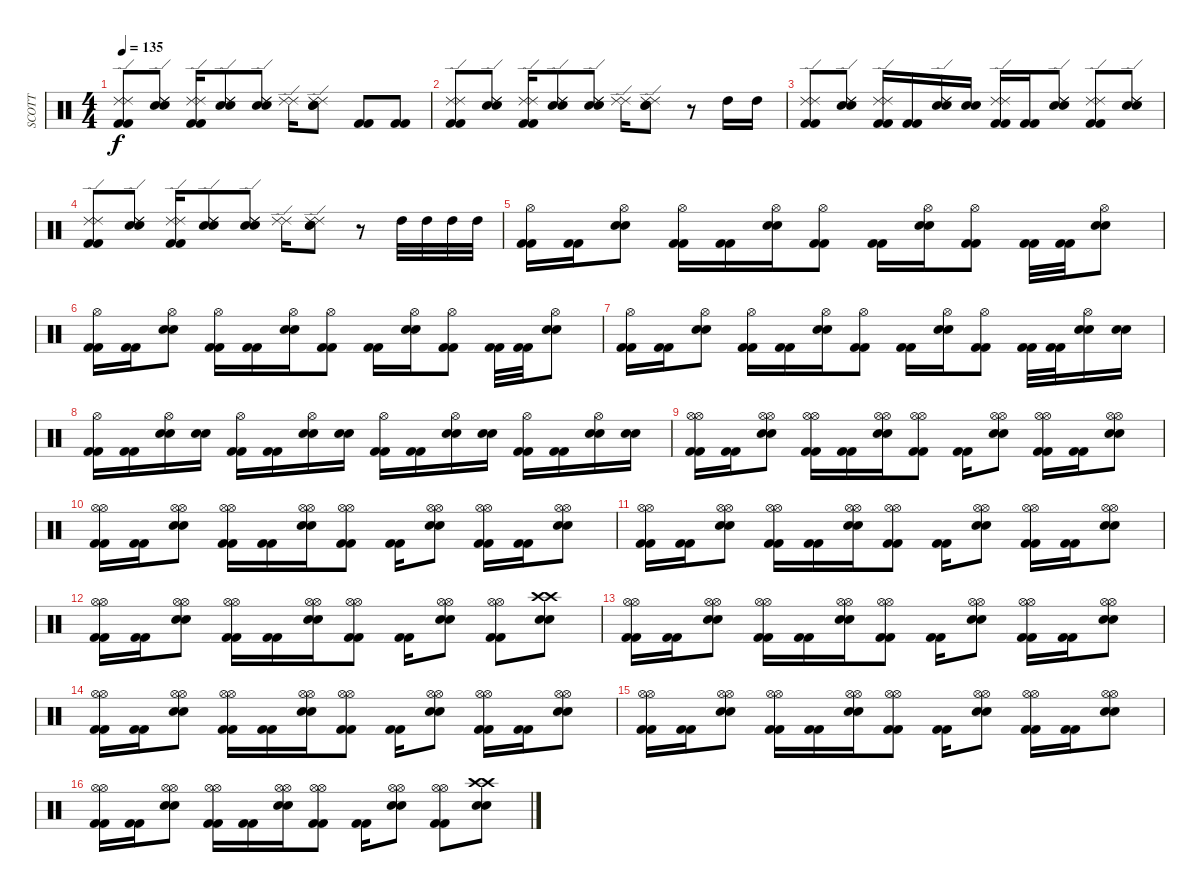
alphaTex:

\track ("SCOTT" "SCOTT") {instrument percussion}
\staff {score}
\articulation defaults
\ts (4 4)
\tempo 135
\clef neutral
\ks c
("Ride (edge) 2" "Ride (edge) 2" "Kick (hit) 2" "Kick (hit) 2").8{dy f} ("Ride (edge) 2" "Ride (edge) 2" "Snare (hit) 2" "Snare (hit) 2").8 ("Ride (edge) 2" "Ride (edge) 2" "Kick (hit) 2" "Kick (hit) 2").16 ("Ride (edge) 2" "Ride (edge) 2" "Snare (hit) 2" "Snare (hit) 2").8 ("Ride (edge) 2" "Ride (edge) 2" "Snare (hit) 2" "Snare (hit) 2").8 ("Ride (edge) 2" "Ride (edge) 2").16 ("Ride (edge) 2" "Ride (edge) 2" "Snare (hit) 2" "Snare (hit) 2").8 ("Kick (hit) 2" "Kick (hit) 2").8 ("Kick (hit) 2" "Kick (hit) 2").8 |
("Ride (edge) 2" "Ride (edge) 2" "Kick (hit) 2" "Kick (hit) 2").8 ("Ride (edge) 2" "Ride (edge) 2" "Snare (hit) 2" "Snare (hit) 2").8 ("Ride (edge) 2" "Ride (edge) 2" "Kick (hit) 2" "Kick (hit) 2").16 ("Ride (edge) 2" "Ride (edge) 2" "Snare (hit) 2" "Snare (hit) 2").8 ("Ride (edge) 2" "Ride (edge) 2" "Snare (hit) 2" "Snare (hit) 2").8 ("Ride (edge) 2" "Ride (edge) 2").16 ("Ride (edge) 2" "Ride (edge) 2" "Snare (hit) 2" "Snare (hit) 2").8 r.8 "High Tom (hit)".16 "High Tom (hit)".16 |
("Ride (edge) 2" "Ride (edge) 2" "Kick (hit) 2" "Kick (hit) 2").8 ("Ride (edge) 2" "Ride (edge) 2" "Snare (hit) 2" "Snare (hit) 2").8 ("Ride (edge) 2" "Ride (edge) 2" "Kick (hit) 2" "Kick (hit) 2").16 ("Kick (hit) 2" "Kick (hit) 2").16 ("Ride (edge) 2" "Ride (edge) 2" "Snare (hit) 2" "Snare (hit) 2").16 ("Snare (hit) 2" "Snare (hit) 2").16 ("Ride (edge) 2" "Ride (edge) 2" "Kick (hit) 2" "Kick (hit) 2").16 ("Kick (hit) 2" "Kick (hit) 2").16 ("Ride (edge) 2" "Ride (edge) 2" "Snare (hit) 2" "Snare (hit) 2").8 ("Ride (edge) 2" "Ride (edge) 2" "Kick (hit) 2" "Kick (hit) 2").8 ("Ride (edge) 2" "Ride (edge) 2" "Snare (hit) 2" "Snare (hit) 2").8 |
("Ride (edge) 2" "Ride (edge) 2" "Kick (hit) 2" "Kick (hit) 2").8 ("Ride (edge) 2" "Ride (edge) 2" "Snare (hit) 2" "Snare (hit) 2").8 ("Ride (edge) 2" "Ride (edge) 2" "Kick (hit) 2" "Kick (hit) 2").16 ("Ride (edge) 2" "Ride (edge) 2" "Snare (hit) 2" "Snare (hit) 2").8 ("Ride (edge) 2" "Ride (edge) 2" "Snare (hit) 2" "Snare (hit) 2").8 ("Ride (edge) 2" "Ride (edge) 2").16 ("Ride (edge) 2" "Ride (edge) 2" "Snare (hit) 2" "Snare (hit) 2").8 r.8 "High Tom (hit)".32 "High Tom (hit)".32 "High Tom (hit)".32 "High Tom (hit)".32 |
("Kick (hit) 2" "Kick (hit) 2" "Hi-Hat (open)").16 ("Kick (hit) 2" "Kick (hit) 2").16 ("Snare (hit) 2" "Snare (hit) 2" "Hi-Hat (open)").8 ("Kick (hit) 2" "Kick (hit) 2" "Hi-Hat (open)").16 ("Kick (hit) 2" "Kick (hit) 2").16 ("Snare (hit) 2" "Snare (hit) 2" "Hi-Hat (open)").16 ("Kick (hit) 2" "Kick (hit) 2" "Hi-Hat (open)").8 ("Kick (hit) 2" "Kick (hit) 2").16 ("Snare (hit) 2" "Snare (hit) 2" "Hi-Hat (open)").16 ("Kick (hit) 2" "Kick (hit) 2" "Hi-Hat (open)").8 ("Kick (hit) 2" "Kick (hit) 2").32 ("Kick (hit) 2" "Kick (hit) 2").32 ("Snare (hit) 2" "Snare (hit) 2" "Hi-Hat (open)").8 |
("Kick (hit) 2" "Kick (hit) 2" "Hi-Hat (open)").16 ("Kick (hit) 2" "Kick (hit) 2").16 ("Snare (hit) 2" "Snare (hit) 2" "Hi-Hat (open)").8 ("Kick (hit) 2" "Kick (hit) 2" "Hi-Hat (open)").16 ("Kick (hit) 2" "Kick (hit) 2").16 ("Snare (hit) 2" "Snare (hit) 2" "Hi-Hat (open)").16 ("Kick (hit) 2" "Kick (hit) 2" "Hi-Hat (open)").8 ("Kick (hit) 2" "Kick (hit) 2").16 ("Snare (hit) 2" "Snare (hit) 2" "Hi-Hat (open)").16 ("Kick (hit) 2" "Kick (hit) 2" "Hi-Hat (open)").8 ("Kick (hit) 2" "Kick (hit) 2").32 ("Kick (hit) 2" "Kick (hit) 2").32 ("Snare (hit) 2" "Snare (hit) 2" "Hi-Hat (open)").8 |
("Kick (hit) 2" "Kick (hit) 2" "Hi-Hat (open)").16 ("Kick (hit) 2" "Kick (hit) 2").16 ("Snare (hit) 2" "Snare (hit) 2" "Hi-Hat (open)").8 ("Kick (hit) 2" "Kick (hit) 2" "Hi-Hat (open)").16 ("Kick (hit) 2" "Kick (hit) 2").16 ("Snare (hit) 2" "Snare (hit) 2" "Hi-Hat (open)").16 ("Kick (hit) 2" "Kick (hit) 2" "Hi-Hat (open)").8 ("Kick (hit) 2" "Kick (hit) 2").16 ("Snare (hit) 2" "Snare (hit) 2" "Hi-Hat (open)").16 ("Kick (hit) 2" "Kick (hit) 2" "Hi-Hat (open)").8 ("Kick (hit) 2" "Kick (hit) 2").32 ("Kick (hit) 2" "Kick (hit) 2").32 ("Snare (hit) 2" "Snare (hit) 2" "Hi-Hat (open)").16 ("Snare (hit) 2" "Snare (hit) 2").16 |
("Kick (hit) 2" "Kick (hit) 2" "Hi-Hat (open)").16 ("Kick (hit) 2" "Kick (hit) 2").16 ("Snare (hit) 2" "Snare (hit) 2" "Hi-Hat (open)").16 ("Snare (hit) 2" "Snare (hit) 2").16 ("Kick (hit) 2" "Kick (hit) 2" "Hi-Hat (open)").16 ("Kick (hit) 2" "Kick (hit) 2").16 ("Snare (hit) 2" "Snare (hit) 2" "Hi-Hat (open)").16 ("Snare (hit) 2" "Snare (hit) 2").16 ("Kick (hit) 2" "Kick (hit) 2" "Hi-Hat (open)").16 ("Kick (hit) 2" "Kick (hit) 2").16 ("Snare (hit) 2" "Snare (hit) 2" "Hi-Hat (open)").16 ("Snare (hit) 2" "Snare (hit) 2").16 ("Kick (hit) 2" "Kick (hit) 2" "Hi-Hat (open)").16 ("Kick (hit) 2" "Kick (hit) 2").16 ("Snare (hit) 2" "Snare (hit) 2" "Hi-Hat (open)").16 ("Snare (hit) 2" "Snare (hit) 2").16 |
("Kick (hit) 2" "Kick (hit) 2" "Hi-Hat (open)" "Hi-Hat (open)").16 ("Kick (hit) 2" "Kick (hit) 2").16 ("Snare (hit) 2" "Snare (hit) 2" "Hi-Hat (open)" "Hi-Hat (open)").8 ("Kick (hit) 2" "Kick (hit) 2" "Hi-Hat (open)" "Hi-Hat (open)").16 ("Kick (hit) 2" "Kick (hit) 2").16 ("Snare (hit) 2" "Snare (hit) 2" "Hi-Hat (open)" "Hi-Hat (open)").16 ("Kick (hit) 2" "Kick (hit) 2" "Hi-Hat (open)" "Hi-Hat (open)").8 ("Kick (hit) 2" "Kick (hit) 2").16 ("Snare (hit) 2" "Snare (hit) 2" "Hi-Hat (open)" "Hi-Hat (open)").8 ("Kick (hit) 2" "Kick (hit) 2" "Hi-Hat (open)" "Hi-Hat (open)").16 ("Kick (hit) 2" "Kick (hit) 2").16 ("Snare (hit) 2" "Snare (hit) 2" "Hi-Hat (open)" "Hi-Hat (open)").8 |
("Kick (hit) 2" "Kick (hit) 2" "Hi-Hat (open)" "Hi-Hat (open)").16 ("Kick (hit) 2" "Kick (hit) 2").16 ("Snare (hit) 2" "Snare (hit) 2" "Hi-Hat (open)" "Hi-Hat (open)").8 ("Kick (hit) 2" "Kick (hit) 2" "Hi-Hat (open)" "Hi-Hat (open)").16 ("Kick (hit) 2" "Kick (hit) 2").16 ("Snare (hit) 2" "Snare (hit) 2" "Hi-Hat (open)" "Hi-Hat (open)").16 ("Kick (hit) 2" "Kick (hit) 2" "Hi-Hat (open)" "Hi-Hat (open)").8 ("Kick (hit) 2" "Kick (hit) 2").16 ("Snare (hit) 2" "Snare (hit) 2" "Hi-Hat (open)" "Hi-Hat (open)").8 ("Kick (hit) 2" "Kick (hit) 2" "Hi-Hat (open)" "Hi-Hat (open)").16 ("Kick (hit) 2" "Kick (hit) 2").16 ("Snare (hit) 2" "Snare (hit) 2" "Hi-Hat (open)" "Hi-Hat (open)").8 |
("Kick (hit) 2" "Kick (hit) 2" "Hi-Hat (open)" "Hi-Hat (open)").16 ("Kick (hit) 2" "Kick (hit) 2").16 ("Snare (hit) 2" "Snare (hit) 2" "Hi-Hat (open)" "Hi-Hat (open)").8 ("Kick (hit) 2" "Kick (hit) 2" "Hi-Hat (open)" "Hi-Hat (open)").16 ("Kick (hit) 2" "Kick (hit) 2").16 ("Snare (hit) 2" "Snare (hit) 2" "Hi-Hat (open)" "Hi-Hat (open)").16 ("Kick (hit) 2" "Kick (hit) 2" "Hi-Hat (open)" "Hi-Hat (open)").8 ("Kick (hit) 2" "Kick (hit) 2").16 ("Snare (hit) 2" "Snare (hit) 2" "Hi-Hat (open)" "Hi-Hat (open)").8 ("Kick (hit) 2" "Kick (hit) 2" "Hi-Hat (open)" "Hi-Hat (open)").16 ("Kick (hit) 2" "Kick (hit) 2").16 ("Snare (hit) 2" "Snare (hit) 2" "Hi-Hat (open)" "Hi-Hat (open)").8 |
("Kick (hit) 2" "Kick (hit) 2" "Hi-Hat (open)" "Hi-Hat (open)").16 ("Kick (hit) 2" "Kick (hit) 2").16 ("Snare (hit) 2" "Snare (hit) 2" "Hi-Hat (open)" "Hi-Hat (open)").8 ("Kick (hit) 2" "Kick (hit) 2" "Hi-Hat (open)" "Hi-Hat (open)").16 ("Kick (hit) 2" "Kick (hit) 2").16 ("Snare (hit) 2" "Snare (hit) 2" "Hi-Hat (open)" "Hi-Hat (open)").16 ("Kick (hit) 2" "Kick (hit) 2" "Hi-Hat (open)" "Hi-Hat (open)").8 ("Kick (hit) 2" "Kick (hit) 2").16 ("Snare (hit) 2" "Snare (hit) 2" "Hi-Hat (open)" "Hi-Hat (open)").8 ("Kick (hit) 2" "Kick (hit) 2" "Hi-Hat (open)" "Hi-Hat (open)").8 ("Snare (hit) 2" "Snare (hit) 2" "Crash high (hit)" "Crash high (hit)").8 |
("Kick (hit) 2" "Kick (hit) 2" "Hi-Hat (open)" "Hi-Hat (open)").16 ("Kick (hit) 2" "Kick (hit) 2").16 ("Snare (hit) 2" "Snare (hit) 2" "Hi-Hat (open)" "Hi-Hat (open)").8 ("Kick (hit) 2" "Kick (hit) 2" "Hi-Hat (open)" "Hi-Hat (open)").16 ("Kick (hit) 2" "Kick (hit) 2").16 ("Snare (hit) 2" "Snare (hit) 2" "Hi-Hat (open)" "Hi-Hat (open)").16 ("Kick (hit) 2" "Kick (hit) 2" "Hi-Hat (open)" "Hi-Hat (open)").8 ("Kick (hit) 2" "Kick (hit) 2").16 ("Snare (hit) 2" "Snare (hit) 2" "Hi-Hat (open)" "Hi-Hat (open)").8 ("Kick (hit) 2" "Kick (hit) 2" "Hi-Hat (open)" "Hi-Hat (open)").16 ("Kick (hit) 2" "Kick (hit) 2").16 ("Snare (hit) 2" "Snare (hit) 2" "Hi-Hat (open)" "Hi-Hat (open)").8 |
("Kick (hit) 2" "Kick (hit) 2" "Hi-Hat (open)" "Hi-Hat (open)").16 ("Kick (hit) 2" "Kick (hit) 2").16 ("Snare (hit) 2" "Snare (hit) 2" "Hi-Hat (open)" "Hi-Hat (open)").8 ("Kick (hit) 2" "Kick (hit) 2" "Hi-Hat (open)" "Hi-Hat (open)").16 ("Kick (hit) 2" "Kick (hit) 2").16 ("Snare (hit) 2" "Snare (hit) 2" "Hi-Hat (open)" "Hi-Hat (open)").16 ("Kick (hit) 2" "Kick (hit) 2" "Hi-Hat (open)" "Hi-Hat (open)").8 ("Kick (hit) 2" "Kick (hit) 2").16 ("Snare (hit) 2" "Snare (hit) 2" "Hi-Hat (open)" "Hi-Hat (open)").8 ("Kick (hit) 2" "Kick (hit) 2" "Hi-Hat (open)" "Hi-Hat (open)").16 ("Kick (hit) 2" "Kick (hit) 2").16 ("Snare (hit) 2" "Snare (hit) 2" "Hi-Hat (open)" "Hi-Hat (open)").8 |
("Kick (hit) 2" "Kick (hit) 2" "Hi-Hat (open)" "Hi-Hat (open)").16 ("Kick (hit) 2" "Kick (hit) 2").16 ("Snare (hit) 2" "Snare (hit) 2" "Hi-Hat (open)" "Hi-Hat (open)").8 ("Kick (hit) 2" "Kick (hit) 2" "Hi-Hat (open)" "Hi-Hat (open)").16 ("Kick (hit) 2" "Kick (hit) 2").16 ("Snare (hit) 2" "Snare (hit) 2" "Hi-Hat (open)" "Hi-Hat (open)").16 ("Kick (hit) 2" "Kick (hit) 2" "Hi-Hat (open)" "Hi-Hat (open)").8 ("Kick (hit) 2" "Kick (hit) 2").16 ("Snare (hit) 2" "Snare (hit) 2" "Hi-Hat (open)" "Hi-Hat (open)").8 ("Kick (hit) 2" "Kick (hit) 2" "Hi-Hat (open)" "Hi-Hat (open)").16 ("Kick (hit) 2" "Kick (hit) 2").16 ("Snare (hit) 2" "Snare (hit) 2" "Hi-Hat (open)" "Hi-Hat (open)").8 |
("Kick (hit) 2" "Kick (hit) 2" "Hi-Hat (open)" "Hi-Hat (open)").16 ("Kick (hit) 2" "Kick (hit) 2").16 ("Snare (hit) 2" "Snare (hit) 2" "Hi-Hat (open)" "Hi-Hat (open)").8 ("Kick (hit) 2" "Kick (hit) 2" "Hi-Hat (open)" "Hi-Hat (open)").16 ("Kick (hit) 2" "Kick (hit) 2").16 ("Snare (hit) 2" "Snare (hit) 2" "Hi-Hat (open)" "Hi-Hat (open)").16 ("Kick (hit) 2" "Kick (hit) 2" "Hi-Hat (open)" "Hi-Hat (open)").8 ("Kick (hit) 2" "Kick (hit) 2").16 ("Snare (hit) 2" "Snare (hit) 2" "Hi-Hat (open)" "Hi-Hat (open)").8 ("Kick (hit) 2" "Kick (hit) 2" "Hi-Hat (open)" "Hi-Hat (open)").8 ("Snare (hit) 2" "Snare (hit) 2" "Crash high (hit)" "Crash high (hit)").8
